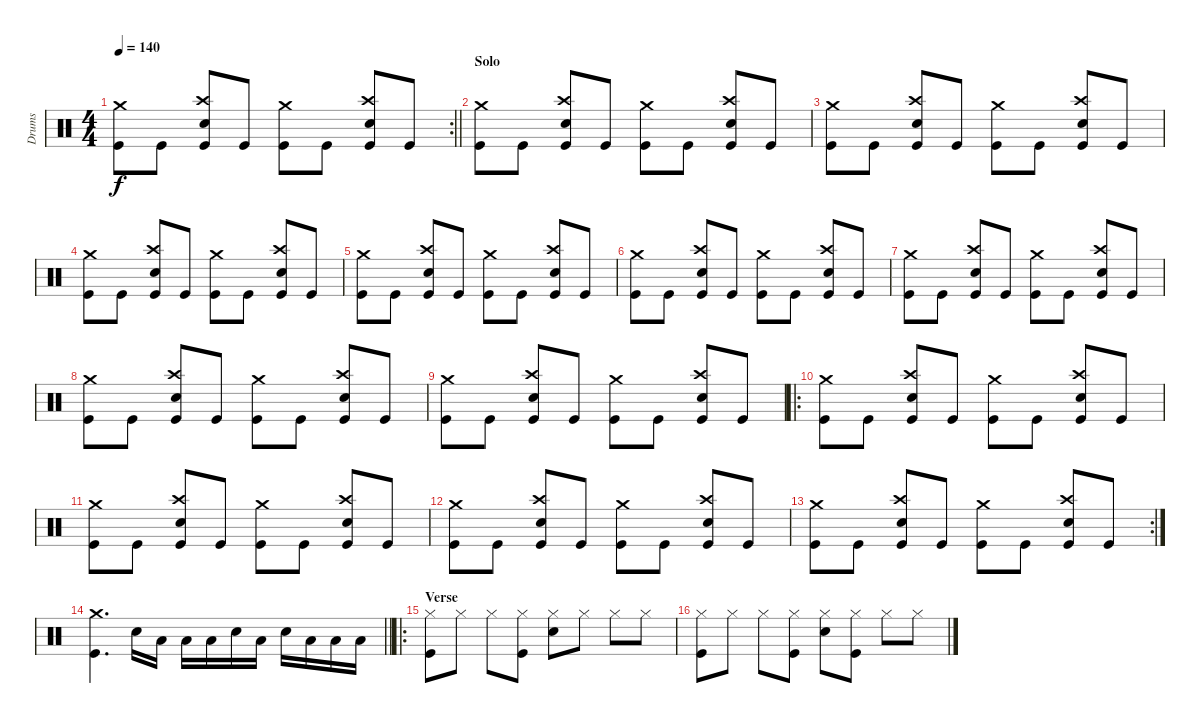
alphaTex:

\track ("Drums" "Drums") {instrument percussion}
\staff {score}
\articulation defaults
\rc 2
\ts (4 4)
\tempo 140
\clef neutral
\barLineRight lightlight
\ks c
("Crash medium (hit)" "Kick (hit)").8{dy f} "Kick (hit)".8 ("Crash high (hit)" "Snare (hit) 2" "Kick (hit)").8 "Kick (hit)".8 ("Crash medium (hit)" "Kick (hit)").8 "Kick (hit)".8 ("Crash high (hit)" "Snare (hit) 2" "Kick (hit)").8 "Kick (hit)".8 |
\section ("" "Solo")
("Crash medium (hit)" "Kick (hit)").8 "Kick (hit)".8 ("Crash high (hit)" "Snare (hit) 2" "Kick (hit)").8 "Kick (hit)".8 ("Crash medium (hit)" "Kick (hit)").8 "Kick (hit)".8 ("Crash high (hit)" "Snare (hit) 2" "Kick (hit)").8 "Kick (hit)".8 |
("Crash medium (hit)" "Kick (hit)").8 "Kick (hit)".8 ("Crash high (hit)" "Snare (hit) 2" "Kick (hit)").8 "Kick (hit)".8 ("Crash medium (hit)" "Kick (hit)").8 "Kick (hit)".8 ("Crash high (hit)" "Snare (hit) 2" "Kick (hit)").8 "Kick (hit)".8 |
("Crash medium (hit)" "Kick (hit)").8 "Kick (hit)".8 ("Crash high (hit)" "Snare (hit) 2" "Kick (hit)").8 "Kick (hit)".8 ("Crash medium (hit)" "Kick (hit)").8 "Kick (hit)".8 ("Crash high (hit)" "Snare (hit) 2" "Kick (hit)").8 "Kick (hit)".8 |
("Crash medium (hit)" "Kick (hit)").8 "Kick (hit)".8 ("Crash high (hit)" "Snare (hit) 2" "Kick (hit)").8 "Kick (hit)".8 ("Crash medium (hit)" "Kick (hit)").8 "Kick (hit)".8 ("Crash high (hit)" "Snare (hit) 2" "Kick (hit)").8 "Kick (hit)".8 |
("Crash medium (hit)" "Kick (hit)").8 "Kick (hit)".8 ("Crash high (hit)" "Snare (hit) 2" "Kick (hit)").8 "Kick (hit)".8 ("Crash medium (hit)" "Kick (hit)").8 "Kick (hit)".8 ("Crash high (hit)" "Snare (hit) 2" "Kick (hit)").8 "Kick (hit)".8 |
("Crash medium (hit)" "Kick (hit)").8 "Kick (hit)".8 ("Crash high (hit)" "Snare (hit) 2" "Kick (hit)").8 "Kick (hit)".8 ("Crash medium (hit)" "Kick (hit)").8 "Kick (hit)".8 ("Crash high (hit)" "Snare (hit) 2" "Kick (hit)").8 "Kick (hit)".8 |
("Crash medium (hit)" "Kick (hit)").8 "Kick (hit)".8 ("Crash high (hit)" "Snare (hit) 2" "Kick (hit)").8 "Kick (hit)".8 ("Crash medium (hit)" "Kick (hit)").8 "Kick (hit)".8 ("Crash high (hit)" "Snare (hit) 2" "Kick (hit)").8 "Kick (hit)".8 |
("Crash medium (hit)" "Kick (hit)").8 "Kick (hit)".8 ("Crash high (hit)" "Snare (hit) 2" "Kick (hit)").8 "Kick (hit)".8 ("Crash medium (hit)" "Kick (hit)").8 "Kick (hit)".8 ("Crash high (hit)" "Snare (hit) 2" "Kick (hit)").8 "Kick (hit)".8 |
\ro
("Crash medium (hit)" "Kick (hit)").8 "Kick (hit)".8 ("Crash high (hit)" "Snare (hit) 2" "Kick (hit)").8 "Kick (hit)".8 ("Crash medium (hit)" "Kick (hit)").8 "Kick (hit)".8 ("Crash high (hit)" "Snare (hit) 2" "Kick (hit)").8 "Kick (hit)".8 |
("Crash medium (hit)" "Kick (hit)").8 "Kick (hit)".8 ("Crash high (hit)" "Snare (hit) 2" "Kick (hit)").8 "Kick (hit)".8 ("Crash medium (hit)" "Kick (hit)").8 "Kick (hit)".8 ("Crash high (hit)" "Snare (hit) 2" "Kick (hit)").8 "Kick (hit)".8 |
("Crash medium (hit)" "Kick (hit)").8 "Kick (hit)".8 ("Crash high (hit)" "Snare (hit) 2" "Kick (hit)").8 "Kick (hit)".8 ("Crash medium (hit)" "Kick (hit)").8 "Kick (hit)".8 ("Crash high (hit)" "Snare (hit) 2" "Kick (hit)").8 "Kick (hit)".8 |
\rc 2
("Crash medium (hit)" "Kick (hit)").8 "Kick (hit)".8 ("Crash high (hit)" "Snare (hit) 2" "Kick (hit)").8 "Kick (hit)".8 ("Crash medium (hit)" "Kick (hit)").8 "Kick (hit)".8 ("Crash high (hit)" "Snare (hit) 2" "Kick (hit)").8 "Kick (hit)".8 |
\barLineRight lightlight
("Crash medium (hit)" "Kick (hit)").4{d} "Snare (hit) 2".16 "Low Tom (hit)".16 "Low Tom (hit)".16 "Low Tom (hit)".16 "Snare (hit) 2".16 "Low Tom (hit)".16 "Snare (hit) 2".16 "Low Tom (hit)".16 "Low Tom (hit)".16 "Low Tom (hit)".16 |
\ro
\section ("" "Verse")
("Hi-Hat (closed)" "Kick (hit)").8 "Hi-Hat (closed)".8 "Hi-Hat (closed)".8 ("Hi-Hat (closed)" "Kick (hit)").8 ("Hi-Hat (closed)" "Snare (hit) 2").8 "Hi-Hat (closed)".8 "Hi-Hat (closed)".8 "Hi-Hat (closed)".8 |
("Hi-Hat (closed)" "Kick (hit)").8 "Hi-Hat (closed)".8 "Hi-Hat (closed)".8 ("Hi-Hat (closed)" "Kick (hit)").8 ("Hi-Hat (closed)" "Snare (hit) 2").8 ("Hi-Hat (closed)" "Kick (hit)").8 "Hi-Hat (closed)".8 "Hi-Hat (closed)".8
